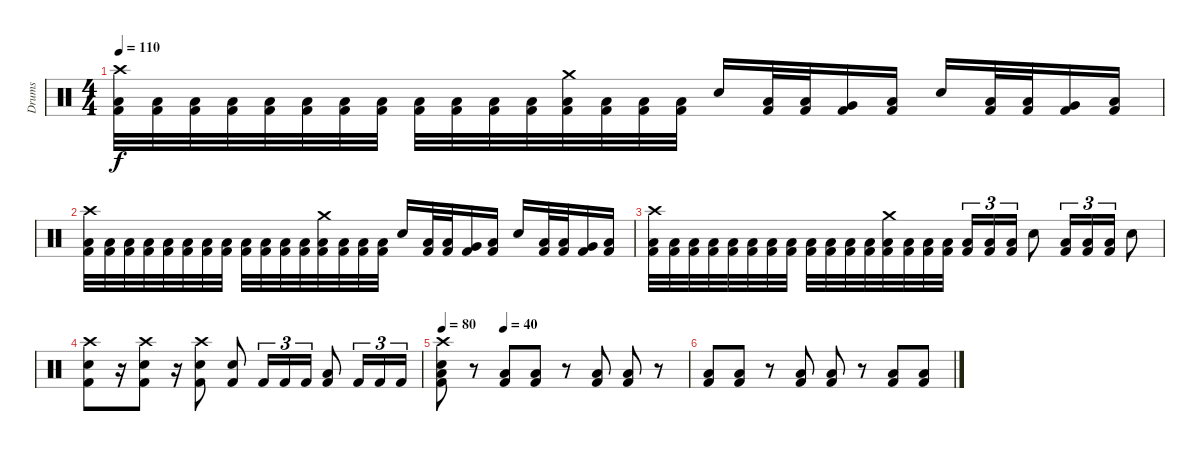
\track ("Drums" "Drums") {instrument percussion}
\staff {score}
\articulation defaults
\ts (4 4)
\tempo 110
\clef neutral
\ks c
("Crash high (hit)" "Low Floor Tom (hit)" "Kick (hit) 2").32{dy f} ("Low Floor Tom (hit)" "Kick (hit) 2").32 ("Low Floor Tom (hit)" "Kick (hit) 2").32 ("Low Floor Tom (hit)" "Kick (hit) 2").32 ("Low Floor Tom (hit)" "Kick (hit) 2").32 ("Low Floor Tom (hit)" "Kick (hit) 2").32 ("Low Floor Tom (hit)" "Kick (hit) 2").32 ("Low Floor Tom (hit)" "Kick (hit) 2").32 ("Low Floor Tom (hit)" "Kick (hit) 2").32 ("Low Floor Tom (hit)" "Kick (hit) 2").32 ("Low Floor Tom (hit)" "Kick (hit) 2").32 ("Low Floor Tom (hit)" "Kick (hit) 2").32 ("Crash medium (hit)" "Low Floor Tom (hit)" "Kick (hit) 2").32 ("Low Floor Tom (hit)" "Kick (hit) 2").32 ("Low Floor Tom (hit)" "Kick (hit) 2").32 ("Low Floor Tom (hit)" "Kick (hit) 2").32 "Snare (hit) 2".16 ("Low Tom (hit)" "Kick (hit) 2").32 ("Low Tom (hit)" "Kick (hit) 2").32 ("Very Low Tom (hit)" "Kick (hit) 2").16 ("Low Floor Tom (hit)" "Kick (hit) 2").16 "Snare (hit) 2".16 ("Low Tom (hit)" "Kick (hit) 2").32 ("Low Tom (hit)" "Kick (hit) 2").32 ("Very Low Tom (hit)" "Kick (hit) 2").16 ("Low Floor Tom (hit)" "Kick (hit) 2").16 |
("Crash high (hit)" "Low Floor Tom (hit)" "Kick (hit) 2").32 ("Low Floor Tom (hit)" "Kick (hit) 2").32 ("Low Floor Tom (hit)" "Kick (hit) 2").32 ("Low Floor Tom (hit)" "Kick (hit) 2").32 ("Low Floor Tom (hit)" "Kick (hit) 2").32 ("Low Floor Tom (hit)" "Kick (hit) 2").32 ("Low Floor Tom (hit)" "Kick (hit) 2").32 ("Low Floor Tom (hit)" "Kick (hit) 2").32 ("Low Floor Tom (hit)" "Kick (hit) 2").32 ("Low Floor Tom (hit)" "Kick (hit) 2").32 ("Low Floor Tom (hit)" "Kick (hit) 2").32 ("Low Floor Tom (hit)" "Kick (hit) 2").32 ("Crash medium (hit)" "Low Floor Tom (hit)" "Kick (hit) 2").32 ("Low Floor Tom (hit)" "Kick (hit) 2").32 ("Low Floor Tom (hit)" "Kick (hit) 2").32 ("Low Floor Tom (hit)" "Kick (hit) 2").32 "Snare (hit) 2".16 ("Low Tom (hit)" "Kick (hit) 2").32 ("Low Tom (hit)" "Kick (hit) 2").32 ("Very Low Tom (hit)" "Kick (hit) 2").16 ("Low Floor Tom (hit)" "Kick (hit) 2").16 "Snare (hit) 2".16 ("Low Tom (hit)" "Kick (hit) 2").32 ("Low Tom (hit)" "Kick (hit) 2").32 ("Very Low Tom (hit)" "Kick (hit) 2").16 ("Low Floor Tom (hit)" "Kick (hit) 2").16 |
("Crash high (hit)" "Low Floor Tom (hit)" "Kick (hit) 2").32 ("Low Floor Tom (hit)" "Kick (hit) 2").32 ("Low Floor Tom (hit)" "Kick (hit) 2").32 ("Low Floor Tom (hit)" "Kick (hit) 2").32 ("Low Floor Tom (hit)" "Kick (hit) 2").32 ("Low Floor Tom (hit)" "Kick (hit) 2").32 ("Low Floor Tom (hit)" "Kick (hit) 2").32 ("Low Floor Tom (hit)" "Kick (hit) 2").32 ("Low Floor Tom (hit)" "Kick (hit) 2").32 ("Low Floor Tom (hit)" "Kick (hit) 2").32 ("Low Floor Tom (hit)" "Kick (hit) 2").32 ("Low Floor Tom (hit)" "Kick (hit) 2").32 ("Crash medium (hit)" "Low Floor Tom (hit)" "Kick (hit) 2").32 ("Low Floor Tom (hit)" "Kick (hit) 2").32 ("Low Floor Tom (hit)" "Kick (hit) 2").32 ("Low Floor Tom (hit)" "Kick (hit) 2").32 ("Low Floor Tom (hit)" "Kick (hit) 2").16{tu (3 2)} ("Low Floor Tom (hit)" "Kick (hit) 2").16{tu (3 2)} ("Low Floor Tom (hit)" "Kick (hit) 2").16{tu (3 2)} "Snare (hit) 2".8 ("Low Floor Tom (hit)" "Kick (hit) 2").16{tu (3 2)} ("Low Floor Tom (hit)" "Kick (hit) 2").16{tu (3 2)} ("Low Floor Tom (hit)" "Kick (hit) 2").16{tu (3 2)} "Snare (hit) 2".8 |
("Crash high (hit)" "Snare (hit) 2" "Kick (hit) 2").8 r.16 ("Crash high (hit)" "Snare (hit) 2" "Kick (hit) 2").8 r.16 ("Crash high (hit)" "Snare (hit) 2" "Kick (hit) 2").8 ("Snare (hit) 2" "Kick (hit) 2").8 "Kick (hit) 2".16{tu (3 2)} "Kick (hit) 2".16{tu (3 2)} "Kick (hit) 2".16{tu (3 2)} ("Low Tom (hit)" "Kick (hit) 2").8 "Kick (hit) 2".16{tu (3 2)} "Kick (hit) 2".16{tu (3 2)} "Kick (hit) 2".16{tu (3 2)} |
\tempo 80
\tempo (40 0.25)
("Crash high (hit)" "Low Floor Tom (hit)" "Snare (hit) 2" "Kick (hit) 2").8 r.8 ("Low Floor Tom (hit)" "Kick (hit) 2").8 ("Low Floor Tom (hit)" "Kick (hit) 2").8 r.8 ("Low Floor Tom (hit)" "Kick (hit) 2").8 ("Low Floor Tom (hit)" "Kick (hit) 2").8 r.8 |
("Low Floor Tom (hit)" "Kick (hit) 2").8 ("Low Floor Tom (hit)" "Kick (hit) 2").8 r.8 ("Low Floor Tom (hit)" "Kick (hit) 2").8 ("Low Floor Tom (hit)" "Kick (hit) 2").8 r.8 ("Low Floor Tom (hit)" "Kick (hit) 2").8 ("Low Floor Tom (hit)" "Kick (hit) 2").8
